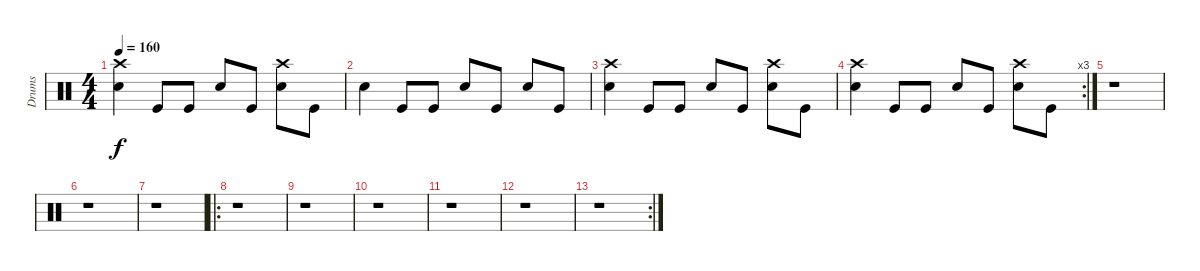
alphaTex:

\track ("Drums" "Drums") {instrument percussion}
\staff {score}
\articulation defaults
\ts (4 4)
\tempo 160
\clef neutral
\ks c
("Crash high (hit)" "Snare (hit) 2").4{dy f} "Kick (hit)".8 "Kick (hit)".8 "Snare (hit) 2".8 "Kick (hit)".8 ("Crash high (hit)" "Snare (hit) 2").8 "Kick (hit)".8 |
"Snare (hit) 2".4 "Kick (hit)".8 "Kick (hit)".8 "Snare (hit) 2".8 "Kick (hit)".8 "Snare (hit) 2".8 "Kick (hit)".8 |
("Crash high (hit)" "Snare (hit) 2").4 "Kick (hit)".8 "Kick (hit)".8 "Snare (hit) 2".8 "Kick (hit)".8 ("Crash high (hit)" "Snare (hit) 2").8 "Kick (hit)".8 |
\rc 3
("Crash high (hit)" "Snare (hit) 2").4 "Kick (hit)".8 "Kick (hit)".8 "Snare (hit) 2".8 "Kick (hit)".8 ("Crash high (hit)" "Snare (hit) 2").8 "Kick (hit)".8 |
r.1 |
r.1 |
r.1 |
\ro
r.1 |
r.1 |
r.1 |
r.1 |
r.1 |
\rc 2
r.1
